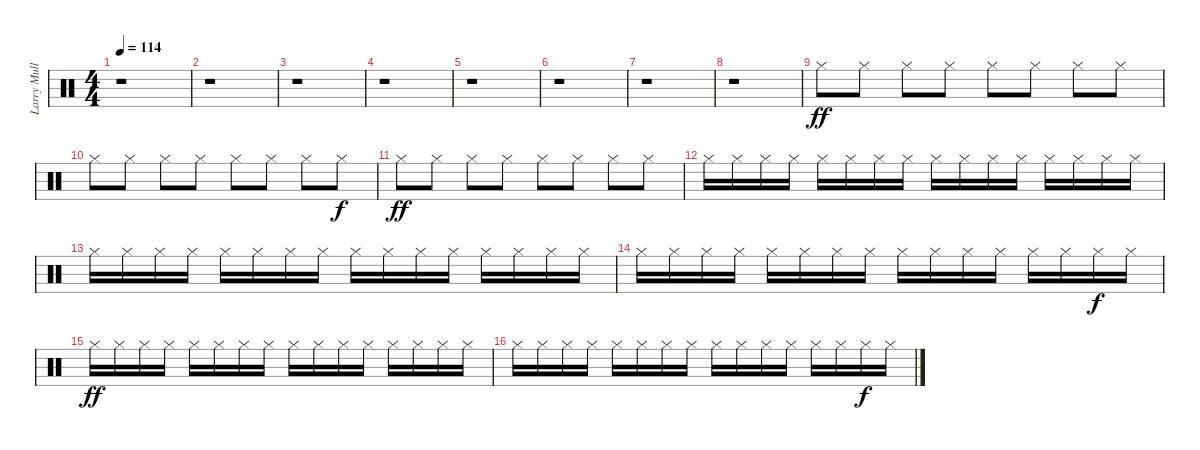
\track ("Larry Mullen Jr suplement for midi" "Larry Mull") {instrument percussion}
\staff {score}
\articulation defaults
\ts (4 4)
\tempo 114
\clef neutral
\ks c
r.1{dy f} |
r.1 |
r.1 |
r.1 |
r.1 |
r.1 |
r.1 |
r.1 |
"Hi-Hat (closed)".8{dy ff volume 8} "Hi-Hat (closed)".8 "Hi-Hat (closed)".8 "Hi-Hat (closed)".8 "Hi-Hat (closed)".8 "Hi-Hat (closed)".8 "Hi-Hat (closed)".8 "Hi-Hat (closed)".8 |
"Hi-Hat (closed)".8 "Hi-Hat (closed)".8 "Hi-Hat (closed)".8 "Hi-Hat (closed)".8 "Hi-Hat (closed)".8 "Hi-Hat (closed)".8 "Hi-Hat (closed)".8 "Hi-Hat (closed)".8{dy f} |
"Hi-Hat (closed)".8{dy ff} "Hi-Hat (closed)".8 "Hi-Hat (closed)".8 "Hi-Hat (closed)".8 "Hi-Hat (closed)".8 "Hi-Hat (closed)".8 "Hi-Hat (closed)".8 "Hi-Hat (closed)".8 |
"Hi-Hat (closed)".16 "Hi-Hat (closed)".16 "Hi-Hat (closed)".16 "Hi-Hat (closed)".16 "Hi-Hat (closed)".16 "Hi-Hat (closed)".16 "Hi-Hat (closed)".16 "Hi-Hat (closed)".16 "Hi-Hat (closed)".16 "Hi-Hat (closed)".16 "Hi-Hat (closed)".16 "Hi-Hat (closed)".16 "Hi-Hat (closed)".16 "Hi-Hat (closed)".16 "Hi-Hat (closed)".16 "Hi-Hat (closed)".16 |
"Hi-Hat (closed)".16 "Hi-Hat (closed)".16 "Hi-Hat (closed)".16 "Hi-Hat (closed)".16 "Hi-Hat (closed)".16 "Hi-Hat (closed)".16 "Hi-Hat (closed)".16 "Hi-Hat (closed)".16 "Hi-Hat (closed)".16 "Hi-Hat (closed)".16 "Hi-Hat (closed)".16 "Hi-Hat (closed)".16 "Hi-Hat (closed)".16 "Hi-Hat (closed)".16 "Hi-Hat (closed)".16 "Hi-Hat (closed)".16 |
"Hi-Hat (closed)".16 "Hi-Hat (closed)".16 "Hi-Hat (closed)".16 "Hi-Hat (closed)".16 "Hi-Hat (closed)".16 "Hi-Hat (closed)".16 "Hi-Hat (closed)".16 "Hi-Hat (closed)".16 "Hi-Hat (closed)".16 "Hi-Hat (closed)".16 "Hi-Hat (closed)".16 "Hi-Hat (closed)".16 "Hi-Hat (closed)".16 "Hi-Hat (closed)".16 "Hi-Hat (closed)".16{dy f} "Hi-Hat (closed)".16 |
"Hi-Hat (closed)".16{dy ff} "Hi-Hat (closed)".16 "Hi-Hat (closed)".16 "Hi-Hat (closed)".16 "Hi-Hat (closed)".16 "Hi-Hat (closed)".16 "Hi-Hat (closed)".16 "Hi-Hat (closed)".16 "Hi-Hat (closed)".16 "Hi-Hat (closed)".16 "Hi-Hat (closed)".16 "Hi-Hat (closed)".16 "Hi-Hat (closed)".16 "Hi-Hat (closed)".16 "Hi-Hat (closed)".16 "Hi-Hat (closed)".16 |
"Hi-Hat (closed)".16{volume 0} "Hi-Hat (closed)".16 "Hi-Hat (closed)".16 "Hi-Hat (closed)".16 "Hi-Hat (closed)".16 "Hi-Hat (closed)".16 "Hi-Hat (closed)".16 "Hi-Hat (closed)".16 "Hi-Hat (closed)".16 "Hi-Hat (closed)".16 "Hi-Hat (closed)".16 "Hi-Hat (closed)".16 "Hi-Hat (closed)".16 "Hi-Hat (closed)".16 "Hi-Hat (closed)".16{dy f} "Hi-Hat (closed)".16
